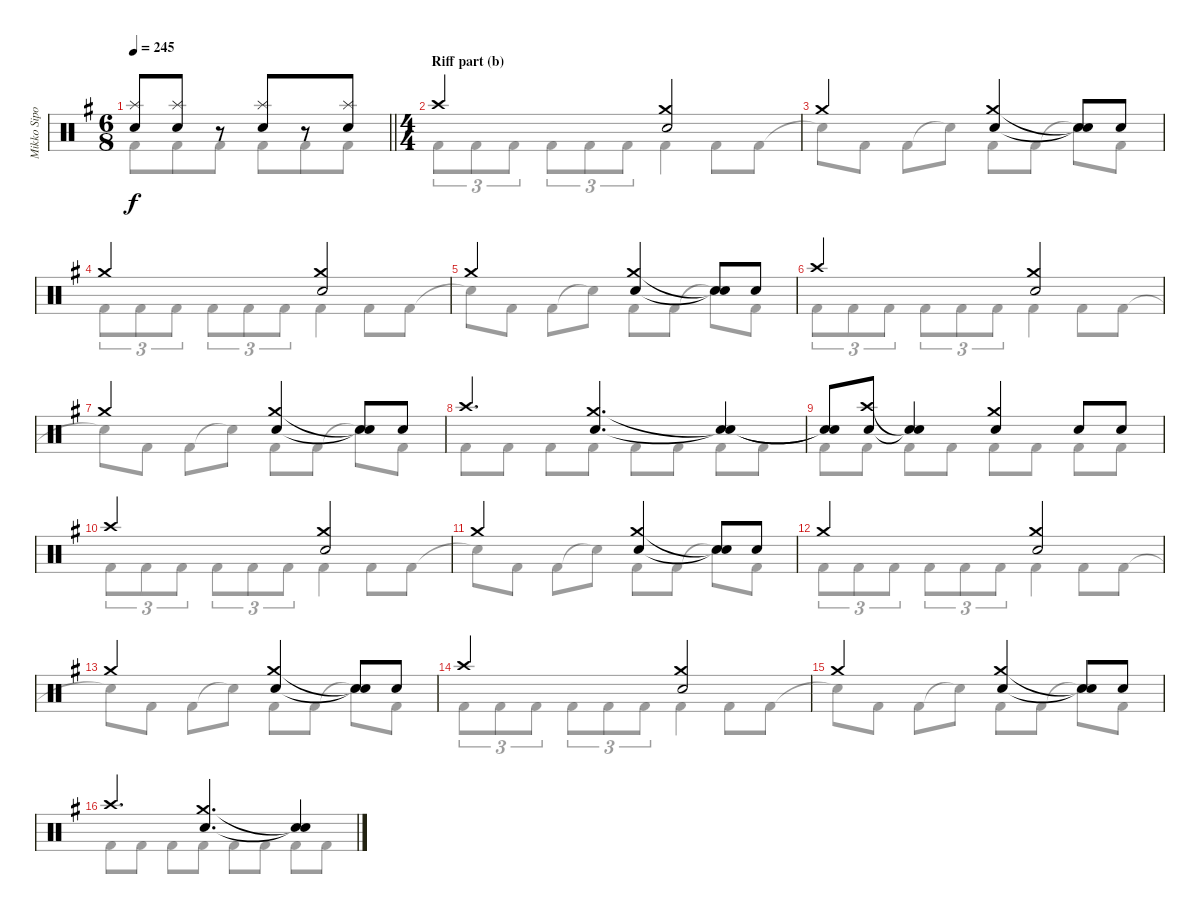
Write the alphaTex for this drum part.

\track ("Mikko Sipola (drums)" "Mikko Sipo") {instrument percussion}
\staff {score}
\articulation defaults
\voice
\ts (6 8)
\tempo 245
\clef neutral
\barLineRight lightlight
\ks eminor
("Splash (hit)" "Electric Snare (hit)").8{dy f} ("Splash (hit)" "Electric Snare (hit)").8 r.8 ("Splash (hit)" "Electric Snare (hit)").8 r.8 ("Splash (hit)" "Electric Snare (hit)").8 |
\ts (4 4)
\section ("" "Riff part (b)")
"Crash high (hit)".2 ("Crash medium (hit)" "Snare (hit) 2").2 |
"Crash medium (hit)".2 ("Crash medium (hit)" "Snare (hit) 2").4 ("Snare (hit)"{t} "Snare (hit)"{t}).8 "Snare (hit) 2".8 |
"Crash medium (hit)".2 ("Crash medium (hit)" "Snare (hit) 2").2 |
"Crash medium (hit)".2 ("Crash medium (hit)" "Snare (hit) 2").4 ("Snare (hit)"{t} "Snare (hit)"{t}).8 "Snare (hit) 2".8 |
"Crash high (hit)".2 ("Crash medium (hit)" "Snare (hit) 2").2 |
"Crash medium (hit)".2 ("Crash medium (hit)" "Snare (hit) 2").4 ("Snare (hit)"{t} "Snare (hit)"{t}).8 "Snare (hit) 2".8 |
"Crash high (hit)".4{d} ("Crash medium (hit)" "Snare (hit) 2").4{d} ("Snare (hit)"{t} "Snare (hit)"{t}).4 |
("Snare (hit)"{t} "Snare (hit)"{t}).8 ("Crash high (hit)" "Snare (hit) 2").8 ("Snare (hit)"{t} "Snare (hit)"{t}).4 ("Crash medium (hit)" "Snare (hit) 2").4 "Snare (hit) 2".8 "Snare (hit) 2".8 |
"Crash high (hit)".2 ("Crash medium (hit)" "Snare (hit) 2").2 |
"Crash medium (hit)".2 ("Crash medium (hit)" "Snare (hit) 2").4 ("Snare (hit)"{t} "Snare (hit)"{t}).8 "Snare (hit) 2".8 |
"Crash medium (hit)".2 ("Crash medium (hit)" "Snare (hit) 2").2 |
"Crash medium (hit)".2 ("Crash medium (hit)" "Snare (hit) 2").4 ("Snare (hit)"{t} "Snare (hit)"{t}).8 "Snare (hit) 2".8 |
"Crash high (hit)".2 ("Crash medium (hit)" "Snare (hit) 2").2 |
"Crash medium (hit)".2 ("Crash medium (hit)" "Snare (hit) 2").4 ("Snare (hit)"{t} "Snare (hit)"{t}).8 "Snare (hit) 2".8 |
"Crash high (hit)".4{d} ("Crash medium (hit)" "Snare (hit) 2").4{d} ("Snare (hit)"{t} "Snare (hit)"{t}).4
\voice
\clef neutral
\ottava regular
\simile none
\barLineRight lightlight
\ks eminor "Kick (hit) 2".8{dy f} "Kick (hit) 2".8 "Kick (hit) 2".8 "Kick (hit) 2".8 "Kick (hit) 2".8 "Kick (hit) 2".8
|
"Kick (hit) 2".8{tu (3 2)} "Kick (hit) 2".8{tu (3 2)} "Kick (hit) 2".8{tu (3 2)} "Kick (hit) 2".8{tu (3 2)} "Kick (hit) 2".8{tu (3 2)} "Kick (hit) 2".8{tu (3 2)} "Kick (hit) 2".4 "Kick (hit) 2".8 "Kick (hit) 2".8 |
"Snare (hit)"{t}.8 "Kick (hit) 2".8 "Kick (hit) 2".8 "Snare (hit)"{t}.8 "Kick (hit) 2".8 "Kick (hit) 2".8 "Snare (hit)"{t}.8 "Kick (hit) 2".8 |
"Kick (hit) 2".8{tu (3 2)} "Kick (hit) 2".8{tu (3 2)} "Kick (hit) 2".8{tu (3 2)} "Kick (hit) 2".8{tu (3 2)} "Kick (hit) 2".8{tu (3 2)} "Kick (hit) 2".8{tu (3 2)} "Kick (hit) 2".4 "Kick (hit) 2".8 "Kick (hit) 2".8 |
"Snare (hit)"{t}.8 "Kick (hit) 2".8 "Kick (hit) 2".8 "Snare (hit)"{t}.8 "Kick (hit) 2".8 "Kick (hit) 2".8 "Snare (hit)"{t}.8 "Kick (hit) 2".8 |
"Kick (hit) 2".8{tu (3 2)} "Kick (hit) 2".8{tu (3 2)} "Kick (hit) 2".8{tu (3 2)} "Kick (hit) 2".8{tu (3 2)} "Kick (hit) 2".8{tu (3 2)} "Kick (hit) 2".8{tu (3 2)} "Kick (hit) 2".4 "Kick (hit) 2".8 "Kick (hit) 2".8 |
"Snare (hit)"{t}.8 "Kick (hit) 2".8 "Kick (hit) 2".8 "Snare (hit)"{t}.8 "Kick (hit) 2".8 "Kick (hit) 2".8 "Snare (hit)"{t}.8 "Kick (hit) 2".8 |
"Kick (hit) 2".8 "Kick (hit) 2".8 "Kick (hit) 2".8 "Kick (hit) 2".8 "Kick (hit) 2".8 "Kick (hit) 2".8 "Kick (hit) 2".8 "Kick (hit) 2".8 |
"Kick (hit) 2".8 "Kick (hit) 2".8 "Kick (hit) 2".8 "Kick (hit) 2".8 "Kick (hit) 2".8 "Kick (hit) 2".8 "Kick (hit) 2".8 "Kick (hit) 2".8 |
"Kick (hit) 2".8{tu (3 2)} "Kick (hit) 2".8{tu (3 2)} "Kick (hit) 2".8{tu (3 2)} "Kick (hit) 2".8{tu (3 2)} "Kick (hit) 2".8{tu (3 2)} "Kick (hit) 2".8{tu (3 2)} "Kick (hit) 2".4 "Kick (hit) 2".8 "Kick (hit) 2".8 |
"Snare (hit)"{t}.8 "Kick (hit) 2".8 "Kick (hit) 2".8 "Snare (hit)"{t}.8 "Kick (hit) 2".8 "Kick (hit) 2".8 "Snare (hit)"{t}.8 "Kick (hit) 2".8 |
"Kick (hit) 2".8{tu (3 2)} "Kick (hit) 2".8{tu (3 2)} "Kick (hit) 2".8{tu (3 2)} "Kick (hit) 2".8{tu (3 2)} "Kick (hit) 2".8{tu (3 2)} "Kick (hit) 2".8{tu (3 2)} "Kick (hit) 2".4 "Kick (hit) 2".8 "Kick (hit) 2".8 |
"Snare (hit)"{t}.8 "Kick (hit) 2".8 "Kick (hit) 2".8 "Snare (hit)"{t}.8 "Kick (hit) 2".8 "Kick (hit) 2".8 "Snare (hit)"{t}.8 "Kick (hit) 2".8 |
"Kick (hit) 2".8{tu (3 2)} "Kick (hit) 2".8{tu (3 2)} "Kick (hit) 2".8{tu (3 2)} "Kick (hit) 2".8{tu (3 2)} "Kick (hit) 2".8{tu (3 2)} "Kick (hit) 2".8{tu (3 2)} "Kick (hit) 2".4 "Kick (hit) 2".8 "Kick (hit) 2".8 |
"Snare (hit)"{t}.8 "Kick (hit) 2".8 "Kick (hit) 2".8 "Snare (hit)"{t}.8 "Kick (hit) 2".8 "Kick (hit) 2".8 "Snare (hit)"{t}.8 "Kick (hit) 2".8 |
"Kick (hit) 2".8 "Kick (hit) 2".8 "Kick (hit) 2".8 "Kick (hit) 2".8 "Kick (hit) 2".8 "Kick (hit) 2".8 "Kick (hit) 2".8 "Kick (hit) 2".8
